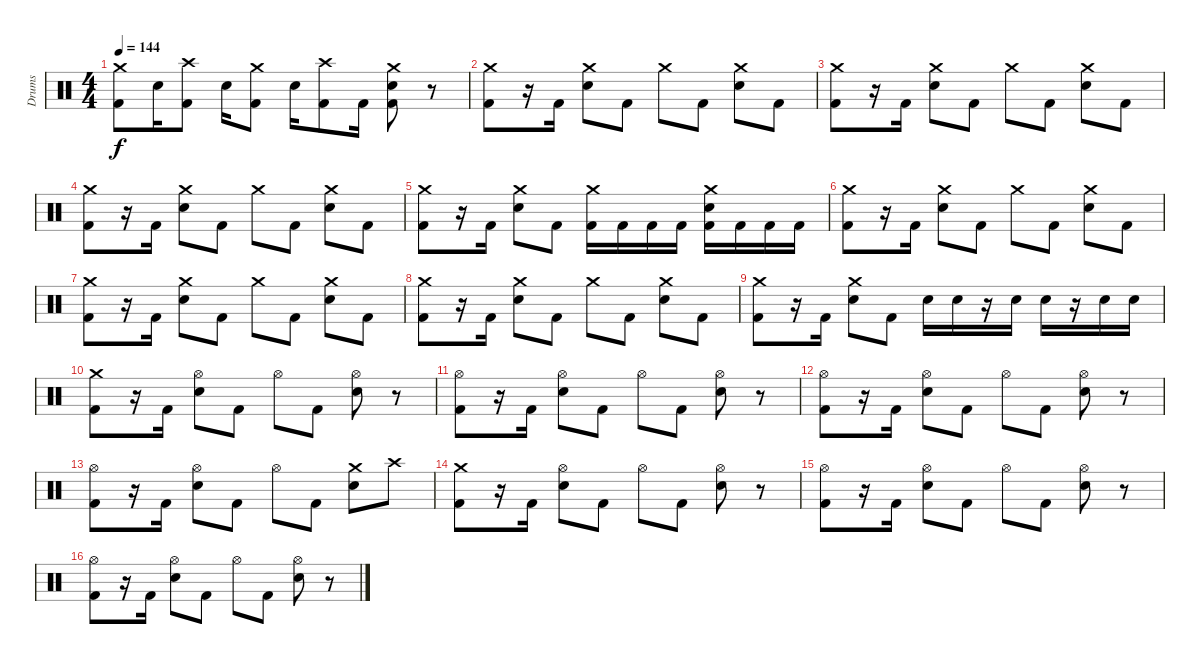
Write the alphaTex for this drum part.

\track ("Drums" "Drums") {instrument percussion}
\staff {score}
\articulation defaults
\ts (4 4)
\tempo 144
\clef neutral
\ks c
("Crash medium (hit)" "Kick (hit) 2").8{dy f} "Electric Snare (hit)".16 ("Crash high (hit)" "Kick (hit) 2").8 "Electric Snare (hit)".16 ("Crash medium (hit)" "Kick (hit) 2").8 "Electric Snare (hit)".16 ("Crash high (hit)" "Kick (hit) 2").8 "Kick (hit) 2".16 ("Crash medium (hit)" "Electric Snare (hit)" "Kick (hit) 2").8 r.8 |
("Crash medium (hit)" "Kick (hit) 2").8 r.16 "Kick (hit) 2".16 ("Crash medium (hit)" "Electric Snare (hit)").8 "Kick (hit) 2".8 "Crash medium (hit)".8 "Kick (hit) 2".8 ("Crash medium (hit)" "Electric Snare (hit)").8 "Kick (hit) 2".8 |
("Crash medium (hit)" "Kick (hit) 2").8 r.16 "Kick (hit) 2".16 ("Crash medium (hit)" "Electric Snare (hit)").8 "Kick (hit) 2".8 "Crash medium (hit)".8 "Kick (hit) 2".8 ("Crash medium (hit)" "Electric Snare (hit)").8 "Kick (hit) 2".8 |
("Crash medium (hit)" "Kick (hit) 2").8 r.16 "Kick (hit) 2".16 ("Crash medium (hit)" "Electric Snare (hit)").8 "Kick (hit) 2".8 "Crash medium (hit)".8 "Kick (hit) 2".8 ("Crash medium (hit)" "Electric Snare (hit)").8 "Kick (hit) 2".8 |
("Crash medium (hit)" "Kick (hit) 2").8 r.16 "Kick (hit) 2".16 ("Crash medium (hit)" "Electric Snare (hit)").8 "Kick (hit) 2".8 ("Crash medium (hit)" "Kick (hit) 2").16 "Kick (hit) 2".16 "Kick (hit) 2".16 "Kick (hit) 2".16 ("Crash medium (hit)" "Electric Snare (hit)" "Kick (hit) 2").16 "Kick (hit) 2".16 "Kick (hit) 2".16 "Kick (hit) 2".16 |
("Crash medium (hit)" "Kick (hit) 2").8 r.16 "Kick (hit) 2".16 ("Crash medium (hit)" "Electric Snare (hit)").8 "Kick (hit) 2".8 "Crash medium (hit)".8 "Kick (hit) 2".8 ("Crash medium (hit)" "Electric Snare (hit)").8 "Kick (hit) 2".8 |
("Crash medium (hit)" "Kick (hit) 2").8 r.16 "Kick (hit) 2".16 ("Crash medium (hit)" "Electric Snare (hit)").8 "Kick (hit) 2".8 "Crash medium (hit)".8 "Kick (hit) 2".8 ("Crash medium (hit)" "Electric Snare (hit)").8 "Kick (hit) 2".8 |
("Crash medium (hit)" "Kick (hit) 2").8 r.16 "Kick (hit) 2".16 ("Crash medium (hit)" "Electric Snare (hit)").8 "Kick (hit) 2".8 "Crash medium (hit)".8 "Kick (hit) 2".8 ("Crash medium (hit)" "Electric Snare (hit)").8 "Kick (hit) 2".8 |
("Crash medium (hit)" "Kick (hit) 2").8 r.16 "Kick (hit) 2".16 ("Crash medium (hit)" "Electric Snare (hit)").8 "Kick (hit) 2".8 "Electric Snare (hit)".16 "Electric Snare (hit)".16 r.16 "Electric Snare (hit)".16 "Electric Snare (hit)".16 r.16 "Electric Snare (hit)".16 "Electric Snare (hit)".16 |
("Crash medium (hit)" "Kick (hit) 2").8 r.16 "Kick (hit) 2".16 ("Hi-Hat (open)" "Electric Snare (hit)").8 "Kick (hit) 2".8 "Hi-Hat (open)".8 "Kick (hit) 2".8 ("Hi-Hat (open)" "Electric Snare (hit)").8 r.8 |
("Hi-Hat (open)" "Kick (hit) 2").8 r.16 "Kick (hit) 2".16 ("Hi-Hat (open)" "Electric Snare (hit)").8 "Kick (hit) 2".8 "Hi-Hat (open)".8 "Kick (hit) 2".8 ("Hi-Hat (open)" "Electric Snare (hit)").8 r.8 |
("Hi-Hat (open)" "Kick (hit) 2").8 r.16 "Kick (hit) 2".16 ("Hi-Hat (open)" "Electric Snare (hit)").8 "Kick (hit) 2".8 "Hi-Hat (open)".8 "Kick (hit) 2".8 ("Hi-Hat (open)" "Electric Snare (hit)").8 r.8 |
("Hi-Hat (open)" "Kick (hit) 2").8 r.16 "Kick (hit) 2".16 ("Hi-Hat (open)" "Electric Snare (hit)").8 "Kick (hit) 2".8 "Hi-Hat (open)".8 "Kick (hit) 2".8 ("Crash medium (hit)" "Electric Snare (hit)").8 "Crash high (hit)".8 |
("Crash medium (hit)" "Kick (hit) 2").8 r.16 "Kick (hit) 2".16 ("Hi-Hat (open)" "Electric Snare (hit)").8 "Kick (hit) 2".8 "Hi-Hat (open)".8 "Kick (hit) 2".8 ("Hi-Hat (open)" "Electric Snare (hit)").8 r.8 |
("Hi-Hat (open)" "Kick (hit) 2").8 r.16 "Kick (hit) 2".16 ("Hi-Hat (open)" "Electric Snare (hit)").8 "Kick (hit) 2".8 "Hi-Hat (open)".8 "Kick (hit) 2".8 ("Hi-Hat (open)" "Electric Snare (hit)").8 r.8 |
("Hi-Hat (open)" "Kick (hit) 2").8 r.16 "Kick (hit) 2".16 ("Hi-Hat (open)" "Electric Snare (hit)").8 "Kick (hit) 2".8 "Hi-Hat (open)".8 "Kick (hit) 2".8 ("Hi-Hat (open)" "Electric Snare (hit)").8 r.8
